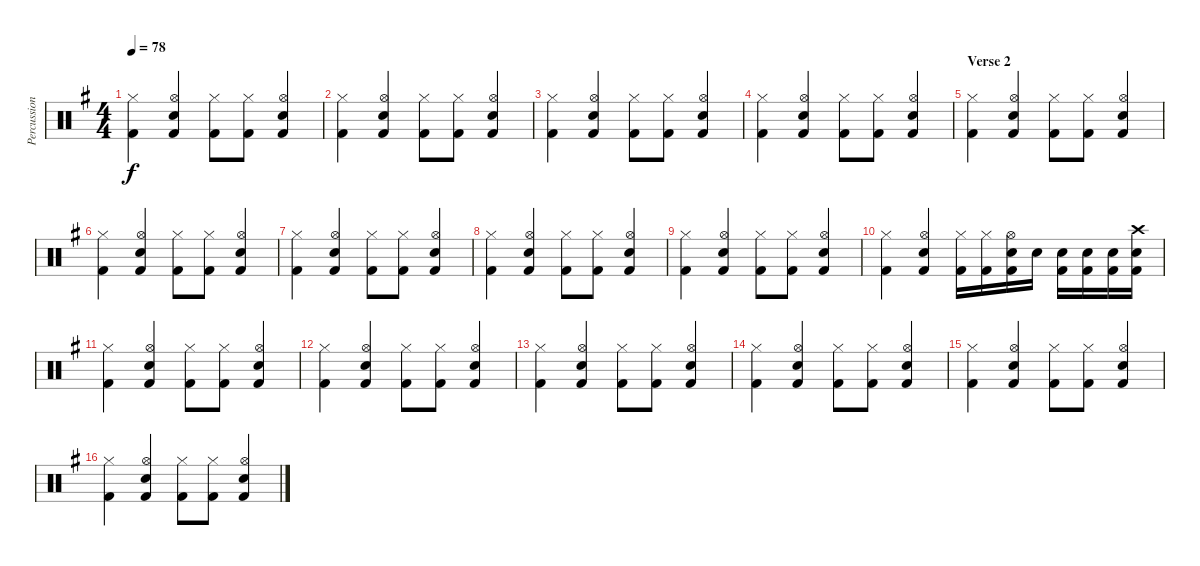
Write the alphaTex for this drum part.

\track ("Percussion" "Percussion") {instrument percussion}
\staff {score}
\articulation defaults
\ts (4 4)
\tempo 78
\clef neutral
\ks g
("Hi-Hat (closed)" "Kick (hit) 2").4{dy f} ("Hi-Hat (open)" "Snare (hit) 2" "Kick (hit) 2").4 ("Hi-Hat (closed)" "Kick (hit) 2").8 ("Hi-Hat (closed)" "Kick (hit) 2").8 ("Hi-Hat (open)" "Snare (hit) 2" "Kick (hit) 2").4 |
("Hi-Hat (closed)" "Kick (hit) 2").4 ("Hi-Hat (open)" "Snare (hit) 2" "Kick (hit) 2").4 ("Hi-Hat (closed)" "Kick (hit) 2").8 ("Hi-Hat (closed)" "Kick (hit) 2").8 ("Hi-Hat (open)" "Snare (hit) 2" "Kick (hit) 2").4 |
("Hi-Hat (closed)" "Kick (hit) 2").4 ("Hi-Hat (open)" "Snare (hit) 2" "Kick (hit) 2").4 ("Hi-Hat (closed)" "Kick (hit) 2").8 ("Hi-Hat (closed)" "Kick (hit) 2").8 ("Hi-Hat (open)" "Snare (hit) 2" "Kick (hit) 2").4 |
("Hi-Hat (closed)" "Kick (hit) 2").4 ("Hi-Hat (open)" "Snare (hit) 2" "Kick (hit) 2").4 ("Hi-Hat (closed)" "Kick (hit) 2").8 ("Hi-Hat (closed)" "Kick (hit) 2").8 ("Hi-Hat (open)" "Snare (hit) 2" "Kick (hit) 2").4 |
\section ("" "Verse 2")
("Hi-Hat (closed)" "Kick (hit) 2").4 ("Hi-Hat (open)" "Snare (hit) 2" "Kick (hit) 2").4 ("Hi-Hat (closed)" "Kick (hit) 2").8 ("Hi-Hat (closed)" "Kick (hit) 2").8 ("Hi-Hat (open)" "Snare (hit) 2" "Kick (hit) 2").4 |
("Hi-Hat (closed)" "Kick (hit) 2").4 ("Hi-Hat (open)" "Snare (hit) 2" "Kick (hit) 2").4 ("Hi-Hat (closed)" "Kick (hit) 2").8 ("Hi-Hat (closed)" "Kick (hit) 2").8 ("Hi-Hat (open)" "Snare (hit) 2" "Kick (hit) 2").4 |
("Hi-Hat (closed)" "Kick (hit) 2").4 ("Hi-Hat (open)" "Snare (hit) 2" "Kick (hit) 2").4 ("Hi-Hat (closed)" "Kick (hit) 2").8 ("Hi-Hat (closed)" "Kick (hit) 2").8 ("Hi-Hat (open)" "Snare (hit) 2" "Kick (hit) 2").4 |
("Hi-Hat (closed)" "Kick (hit) 2").4 ("Hi-Hat (open)" "Snare (hit) 2" "Kick (hit) 2").4 ("Hi-Hat (closed)" "Kick (hit) 2").8 ("Hi-Hat (closed)" "Kick (hit) 2").8 ("Hi-Hat (open)" "Snare (hit) 2" "Kick (hit) 2").4 |
("Hi-Hat (closed)" "Kick (hit) 2").4 ("Hi-Hat (open)" "Snare (hit) 2" "Kick (hit) 2").4 ("Hi-Hat (closed)" "Kick (hit) 2").8 ("Hi-Hat (closed)" "Kick (hit) 2").8 ("Hi-Hat (open)" "Snare (hit) 2" "Kick (hit) 2").4 |
("Hi-Hat (closed)" "Kick (hit) 2").4 ("Hi-Hat (open)" "Snare (hit) 2" "Kick (hit) 2").4 ("Hi-Hat (closed)" "Kick (hit) 2").16 ("Hi-Hat (closed)" "Kick (hit) 2").16 ("Hi-Hat (open)" "Snare (hit) 2" "Kick (hit) 2").16 "Snare (hit) 2".16 ("Snare (hit) 2" "Kick (hit) 2").16 ("Snare (hit) 2" "Kick (hit) 2").16 ("Snare (hit) 2" "Kick (hit) 2").16 ("Crash high (hit)" "Snare (hit) 2" "Kick (hit) 2").16 |
("Hi-Hat (closed)" "Kick (hit) 2").4 ("Hi-Hat (open)" "Snare (hit) 2" "Kick (hit) 2").4 ("Hi-Hat (closed)" "Kick (hit) 2").8 ("Hi-Hat (closed)" "Kick (hit) 2").8 ("Hi-Hat (open)" "Snare (hit) 2" "Kick (hit) 2").4 |
("Hi-Hat (closed)" "Kick (hit) 2").4 ("Hi-Hat (open)" "Snare (hit) 2" "Kick (hit) 2").4 ("Hi-Hat (closed)" "Kick (hit) 2").8 ("Hi-Hat (closed)" "Kick (hit) 2").8 ("Hi-Hat (open)" "Snare (hit) 2" "Kick (hit) 2").4 |
("Hi-Hat (closed)" "Kick (hit) 2").4 ("Hi-Hat (open)" "Snare (hit) 2" "Kick (hit) 2").4 ("Hi-Hat (closed)" "Kick (hit) 2").8 ("Hi-Hat (closed)" "Kick (hit) 2").8 ("Hi-Hat (open)" "Snare (hit) 2" "Kick (hit) 2").4 |
("Hi-Hat (closed)" "Kick (hit) 2").4 ("Hi-Hat (open)" "Snare (hit) 2" "Kick (hit) 2").4 ("Hi-Hat (closed)" "Kick (hit) 2").8 ("Hi-Hat (closed)" "Kick (hit) 2").8 ("Hi-Hat (open)" "Snare (hit) 2" "Kick (hit) 2").4 |
("Hi-Hat (closed)" "Kick (hit) 2").4 ("Hi-Hat (open)" "Snare (hit) 2" "Kick (hit) 2").4 ("Hi-Hat (closed)" "Kick (hit) 2").8 ("Hi-Hat (closed)" "Kick (hit) 2").8 ("Hi-Hat (open)" "Snare (hit) 2" "Kick (hit) 2").4 |
("Hi-Hat (closed)" "Kick (hit) 2").4 ("Hi-Hat (open)" "Snare (hit) 2" "Kick (hit) 2").4 ("Hi-Hat (closed)" "Kick (hit) 2").8 ("Hi-Hat (closed)" "Kick (hit) 2").8 ("Hi-Hat (open)" "Snare (hit) 2" "Kick (hit) 2").4
